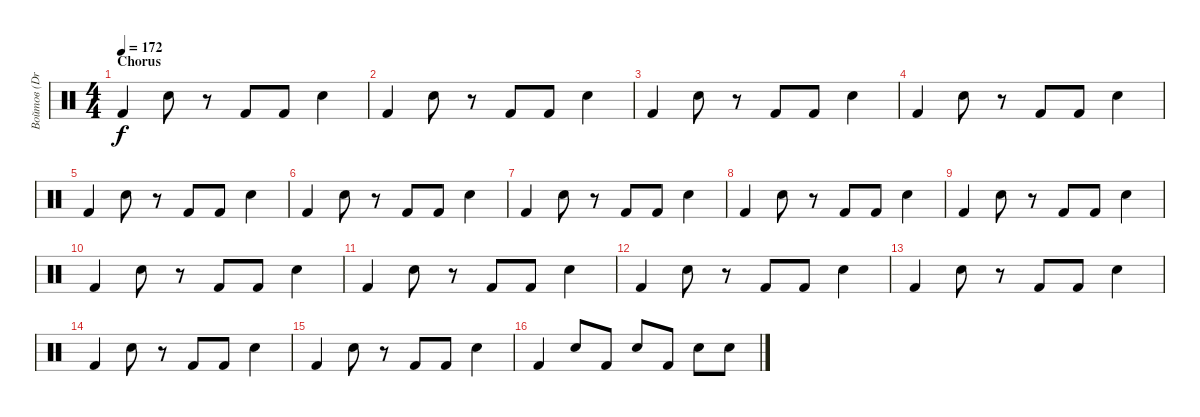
\track ("Войтов (Drums)" "Войтов (Dr") {instrument percussion}
\staff {score}
\articulation defaults
\ts (4 4)
\section ("" "Chorus")
\tempo 172
\clef neutral
\ks c "Kick (hit) 2".4{dy f} "Electric Snare (hit)".8
r.8 "Kick (hit) 2".8 "Kick (hit) 2".8 "Electric Snare (hit)".4 |
"Kick (hit) 2".4 "Electric Snare (hit)".8 r.8 "Kick (hit) 2".8 "Kick (hit) 2".8 "Electric Snare (hit)".4 |
"Kick (hit) 2".4 "Electric Snare (hit)".8 r.8 "Kick (hit) 2".8 "Kick (hit) 2".8 "Electric Snare (hit)".4 |
"Kick (hit) 2".4 "Electric Snare (hit)".8 r.8 "Kick (hit) 2".8 "Kick (hit) 2".8 "Electric Snare (hit)".4 |
"Kick (hit) 2".4 "Electric Snare (hit)".8 r.8 "Kick (hit) 2".8 "Kick (hit) 2".8 "Electric Snare (hit)".4 |
"Kick (hit) 2".4 "Electric Snare (hit)".8 r.8 "Kick (hit) 2".8 "Kick (hit) 2".8 "Electric Snare (hit)".4 |
"Kick (hit) 2".4 "Electric Snare (hit)".8 r.8 "Kick (hit) 2".8 "Kick (hit) 2".8 "Electric Snare (hit)".4 |
"Kick (hit) 2".4 "Electric Snare (hit)".8 r.8 "Kick (hit) 2".8 "Kick (hit) 2".8 "Electric Snare (hit)".4 |
"Kick (hit) 2".4 "Electric Snare (hit)".8 r.8 "Kick (hit) 2".8 "Kick (hit) 2".8 "Electric Snare (hit)".4 |
"Kick (hit) 2".4 "Electric Snare (hit)".8 r.8 "Kick (hit) 2".8 "Kick (hit) 2".8 "Electric Snare (hit)".4 |
"Kick (hit) 2".4 "Electric Snare (hit)".8 r.8 "Kick (hit) 2".8 "Kick (hit) 2".8 "Electric Snare (hit)".4 |
"Kick (hit) 2".4 "Electric Snare (hit)".8 r.8 "Kick (hit) 2".8 "Kick (hit) 2".8 "Electric Snare (hit)".4 |
"Kick (hit) 2".4 "Electric Snare (hit)".8 r.8 "Kick (hit) 2".8 "Kick (hit) 2".8 "Electric Snare (hit)".4 |
"Kick (hit) 2".4 "Electric Snare (hit)".8 r.8 "Kick (hit) 2".8 "Kick (hit) 2".8 "Electric Snare (hit)".4 |
"Kick (hit) 2".4 "Electric Snare (hit)".8 r.8 "Kick (hit) 2".8 "Kick (hit) 2".8 "Electric Snare (hit)".4 |
"Kick (hit) 2".4 "Electric Snare (hit)".8 "Kick (hit) 2".8 "Electric Snare (hit)".8 "Kick (hit) 2".8 "Electric Snare (hit)".8 "Electric Snare (hit)".8
